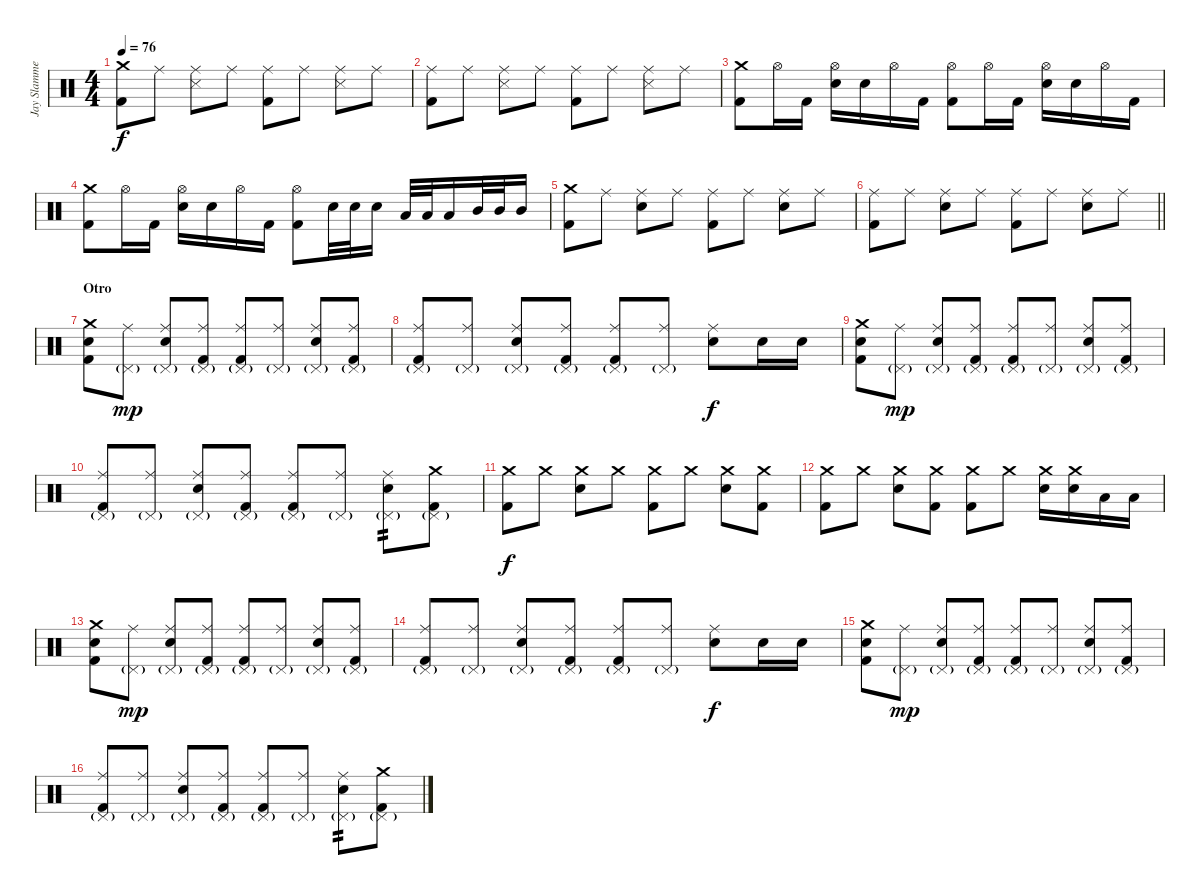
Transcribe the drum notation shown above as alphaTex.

\track ("Jay Slammer" "Jay Slamme") {instrument percussion}
\staff {score}
\articulation defaults
\ts (4 4)
\tempo 76
\clef neutral
\ks c
("Crash medium (hit)" "Kick (hit) 2").8{dy f} "Ride (middle)".8 ("Ride (middle)" "Metronome (hit)").8 "Ride (middle)".8 ("Ride (middle)" "Kick (hit) 2").8 "Ride (middle)".8 ("Ride (middle)" "Metronome (hit)").8 "Ride (middle)".8 |
("Ride (middle)" "Kick (hit) 2").8 "Ride (middle)".8 ("Ride (middle)" "Metronome (hit)").8 "Ride (middle)".8 ("Ride (middle)" "Kick (hit) 2").8 "Ride (middle)".8 ("Ride (middle)" "Metronome (hit)").8 "Ride (middle)".8 |
("Crash medium (hit)" "Kick (hit) 2").8 "Hi-Hat (open)".16 "Kick (hit) 2".16 ("Hi-Hat (open)" "Electric Snare (hit)").16 "Electric Snare (hit)".16 "Hi-Hat (open)".16 "Kick (hit) 2".16 ("Hi-Hat (open)" "Kick (hit) 2").8 "Hi-Hat (open)".16 "Kick (hit) 2".16 ("Hi-Hat (open)" "Electric Snare (hit)").16 "Electric Snare (hit)".16 "Hi-Hat (open)".16 "Kick (hit) 2".16 |
("Crash medium (hit)" "Kick (hit) 2").8 "Hi-Hat (open)".16 "Kick (hit) 2".16 ("Hi-Hat (open)" "Electric Snare (hit)").16 "Electric Snare (hit)".16 "Hi-Hat (open)".16 "Kick (hit) 2".16 ("Hi-Hat (open)" "Kick (hit) 2").8 "Electric Snare (hit)".32 "Electric Snare (hit)".32 "Electric Snare (hit)".16 "Low Tom (hit)".32 "Low Tom (hit)".32 "Low Tom (hit)".16 "Mid Tom (hit)".32 "Mid Tom (hit)".32 "Mid Tom (hit)".16 |
("Crash medium (hit)" "Kick (hit) 2").8 "Ride (middle)".8 ("Ride (middle)" "Electric Snare (hit)").8 "Ride (middle)".8 ("Ride (middle)" "Kick (hit) 2").8 "Ride (middle)".8 ("Ride (middle)" "Electric Snare (hit)").8 "Ride (middle)".8 |
\barLineRight lightlight
("Ride (middle)" "Kick (hit) 2").8 "Ride (middle)".8 ("Ride (middle)" "Electric Snare (hit)").8 "Ride (middle)".8 ("Ride (middle)" "Kick (hit) 2").8 "Ride (middle)".8 ("Ride (middle)" "Electric Snare (hit)").8 "Ride (middle)".8 |
\section ("" "Otro")
("Snare (hit)" "Crash medium (hit)" "Kick (hit) 2").8 ("Pedal Hi-Hat (hit)"{g} "Ride (middle)").8{dy mp} ("Pedal Hi-Hat (hit)"{g} "Ride (middle)" "Electric Snare (hit)").8 ("Pedal Hi-Hat (hit)"{g} "Ride (middle)" "Kick (hit) 2").8 ("Pedal Hi-Hat (hit)"{g} "Ride (middle)" "Kick (hit) 2").8 ("Pedal Hi-Hat (hit)"{g} "Ride (middle)").8 ("Pedal Hi-Hat (hit)"{g} "Ride (middle)" "Electric Snare (hit)").8 ("Pedal Hi-Hat (hit)"{g} "Ride (middle)" "Kick (hit) 2").8 |
("Pedal Hi-Hat (hit)"{g} "Ride (middle)" "Kick (hit) 2").8 ("Pedal Hi-Hat (hit)"{g} "Ride (middle)").8 ("Pedal Hi-Hat (hit)"{g} "Ride (middle)" "Electric Snare (hit)").8 ("Pedal Hi-Hat (hit)"{g} "Ride (middle)" "Kick (hit) 2").8 ("Pedal Hi-Hat (hit)"{g} "Ride (middle)" "Kick (hit) 2").8 ("Pedal Hi-Hat (hit)"{g} "Ride (middle)").8 ("Ride (middle)" "Electric Snare (hit)").8{dy f} "Electric Snare (hit)".16 "Electric Snare (hit)".16 |
("Snare (hit)" "Crash medium (hit)" "Kick (hit) 2").8 ("Pedal Hi-Hat (hit)"{g} "Ride (middle)").8{dy mp} ("Pedal Hi-Hat (hit)"{g} "Ride (middle)" "Electric Snare (hit)").8 ("Pedal Hi-Hat (hit)"{g} "Ride (middle)" "Kick (hit) 2").8 ("Pedal Hi-Hat (hit)"{g} "Ride (middle)" "Kick (hit) 2").8 ("Pedal Hi-Hat (hit)"{g} "Ride (middle)").8 ("Pedal Hi-Hat (hit)"{g} "Ride (middle)" "Electric Snare (hit)").8 ("Pedal Hi-Hat (hit)"{g} "Ride (middle)" "Kick (hit) 2").8 |
("Pedal Hi-Hat (hit)"{g} "Ride (middle)" "Kick (hit) 2").8 ("Pedal Hi-Hat (hit)"{g} "Ride (middle)").8 ("Pedal Hi-Hat (hit)"{g} "Ride (middle)" "Electric Snare (hit)").8 ("Pedal Hi-Hat (hit)"{g} "Ride (middle)" "Kick (hit) 2").8 ("Pedal Hi-Hat (hit)"{g} "Ride (middle)" "Kick (hit) 2").8 ("Pedal Hi-Hat (hit)"{g} "Ride (middle)").8 ("Pedal Hi-Hat (hit)"{g} "Ride (middle)" "Electric Snare (hit)").8{tp 2} ("Pedal Hi-Hat (hit)"{g} "Crash medium (hit)" "Kick (hit) 2").8 |
("Crash medium (hit)" "Kick (hit) 2").8{dy f} "Crash medium (hit)".8 ("Crash medium (hit)" "Electric Snare (hit)").8 "Crash medium (hit)".8 ("Crash medium (hit)" "Kick (hit) 2").8 "Crash medium (hit)".8 ("Crash medium (hit)" "Electric Snare (hit)").8 ("Crash medium (hit)" "Kick (hit) 2").8 |
("Crash medium (hit)" "Kick (hit) 2").8 "Crash medium (hit)".8 ("Crash medium (hit)" "Electric Snare (hit)").8 ("Crash medium (hit)" "Kick (hit) 2").8 ("Crash medium (hit)" "Kick (hit) 2").8 "Crash medium (hit)".8 ("Crash medium (hit)" "Electric Snare (hit)").16 ("Crash medium (hit)" "Electric Snare (hit)").16 "Low Tom (hit)".16 "Low Tom (hit)".16 |
("Snare (hit)" "Crash medium (hit)" "Kick (hit) 2").8 ("Pedal Hi-Hat (hit)"{g} "Ride (middle)").8{dy mp} ("Pedal Hi-Hat (hit)"{g} "Ride (middle)" "Electric Snare (hit)").8 ("Pedal Hi-Hat (hit)"{g} "Ride (middle)" "Kick (hit) 2").8 ("Pedal Hi-Hat (hit)"{g} "Ride (middle)" "Kick (hit) 2").8 ("Pedal Hi-Hat (hit)"{g} "Ride (middle)").8 ("Pedal Hi-Hat (hit)"{g} "Ride (middle)" "Electric Snare (hit)").8 ("Pedal Hi-Hat (hit)"{g} "Ride (middle)" "Kick (hit) 2").8 |
("Pedal Hi-Hat (hit)"{g} "Ride (middle)" "Kick (hit) 2").8 ("Pedal Hi-Hat (hit)"{g} "Ride (middle)").8 ("Pedal Hi-Hat (hit)"{g} "Ride (middle)" "Electric Snare (hit)").8 ("Pedal Hi-Hat (hit)"{g} "Ride (middle)" "Kick (hit) 2").8 ("Pedal Hi-Hat (hit)"{g} "Ride (middle)" "Kick (hit) 2").8 ("Pedal Hi-Hat (hit)"{g} "Ride (middle)").8 ("Ride (middle)" "Electric Snare (hit)").8{dy f} "Electric Snare (hit)".16 "Electric Snare (hit)".16 |
("Snare (hit)" "Crash medium (hit)" "Kick (hit) 2").8 ("Pedal Hi-Hat (hit)"{g} "Ride (middle)").8{dy mp} ("Pedal Hi-Hat (hit)"{g} "Ride (middle)" "Electric Snare (hit)").8 ("Pedal Hi-Hat (hit)"{g} "Ride (middle)" "Kick (hit) 2").8 ("Pedal Hi-Hat (hit)"{g} "Ride (middle)" "Kick (hit) 2").8 ("Pedal Hi-Hat (hit)"{g} "Ride (middle)").8 ("Pedal Hi-Hat (hit)"{g} "Ride (middle)" "Electric Snare (hit)").8 ("Pedal Hi-Hat (hit)"{g} "Ride (middle)" "Kick (hit) 2").8 |
("Pedal Hi-Hat (hit)"{g} "Ride (middle)" "Kick (hit) 2").8 ("Pedal Hi-Hat (hit)"{g} "Ride (middle)").8 ("Pedal Hi-Hat (hit)"{g} "Ride (middle)" "Electric Snare (hit)").8 ("Pedal Hi-Hat (hit)"{g} "Ride (middle)" "Kick (hit) 2").8 ("Pedal Hi-Hat (hit)"{g} "Ride (middle)" "Kick (hit) 2").8 ("Pedal Hi-Hat (hit)"{g} "Ride (middle)").8 ("Pedal Hi-Hat (hit)"{g} "Ride (middle)" "Electric Snare (hit)").8{tp 2} ("Pedal Hi-Hat (hit)"{g} "Crash medium (hit)" "Kick (hit) 2").8
